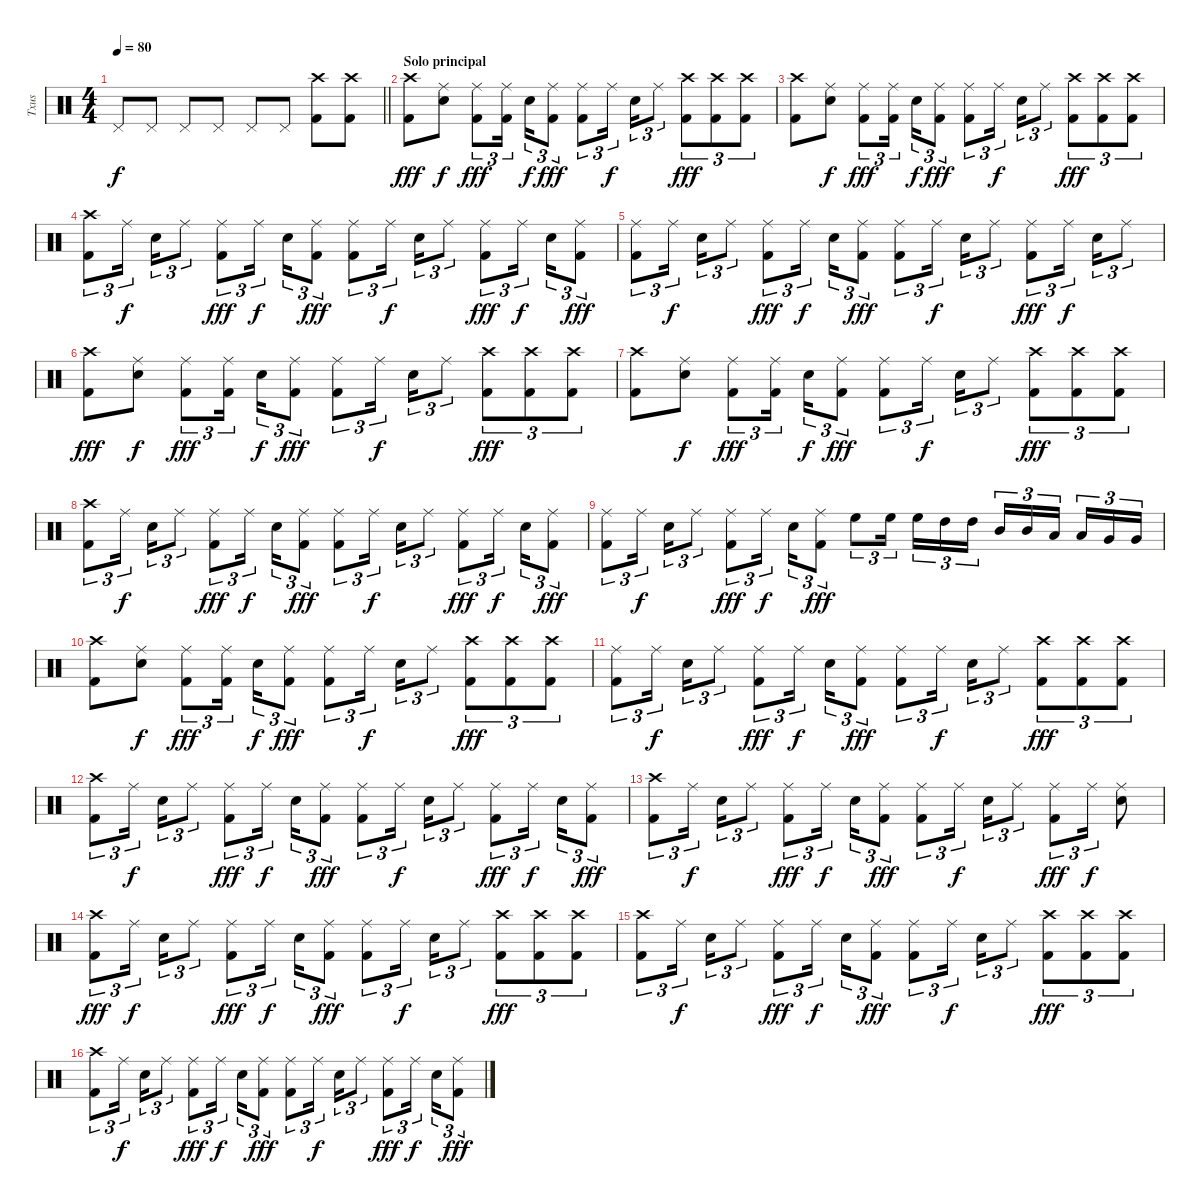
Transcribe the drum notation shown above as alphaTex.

\track ("Txus" "Txus") {instrument percussion}
\staff {score}
\articulation defaults
\ts (4 4)
\tempo 80
\clef neutral
\barLineRight lightlight
\ks c "Pedal Hi-Hat (hit)".8{dy f} "Pedal Hi-Hat (hit)".8 "Pedal Hi-Hat (hit)".8 "Pedal Hi-Hat (hit)".8 "Pedal Hi-Hat (hit)".8 "Pedal Hi-Hat (hit)".8
("Kick (hit) 2" "Crash high (hit)").8 ("Kick (hit) 2" "Crash high (hit)").8 |
\section ("" "Solo principal")
("Kick (hit) 2" "Crash high (hit)").8{dy fff} ("Electric Snare (hit)" "Ride (middle)").8{dy f} ("Kick (hit) 2" "Ride (middle)").8{tu (3 2) dy fff} ("Kick (hit) 2" "Ride (middle)").16{tu (3 2) beam splitsecondary} "Electric Snare (hit)".16{tu (3 2) dy f} ("Kick (hit) 2" "Ride (middle)").8{tu (3 2) dy fff} ("Kick (hit) 2" "Ride (middle)").8{tu (3 2)} "Ride (middle)".16{tu (3 2) dy f beam splitsecondary} "Electric Snare (hit)".16{tu (3 2)} "Ride (middle)".8{tu (3 2)} ("Kick (hit) 2" "Crash high (hit)").8{tu (3 2) dy fff} ("Kick (hit) 2" "Crash high (hit)").8{tu (3 2)} ("Kick (hit) 2" "Crash high (hit)").8{tu (3 2)} |
("Kick (hit) 2" "Crash high (hit)").8 ("Electric Snare (hit)" "Ride (middle)").8{dy f} ("Kick (hit) 2" "Ride (middle)").8{tu (3 2) dy fff} ("Kick (hit) 2" "Ride (middle)").16{tu (3 2) beam splitsecondary} "Electric Snare (hit)".16{tu (3 2) dy f} ("Kick (hit) 2" "Ride (middle)").8{tu (3 2) dy fff} ("Kick (hit) 2" "Ride (middle)").8{tu (3 2)} "Ride (middle)".16{tu (3 2) dy f beam splitsecondary} "Electric Snare (hit)".16{tu (3 2)} "Ride (middle)".8{tu (3 2)} ("Kick (hit) 2" "Crash high (hit)").8{tu (3 2) dy fff} ("Kick (hit) 2" "Crash high (hit)").8{tu (3 2)} ("Kick (hit) 2" "Crash high (hit)").8{tu (3 2)} |
("Kick (hit) 2" "Crash high (hit)").8{tu (3 2)} "Ride (middle)".16{tu (3 2) dy f beam splitsecondary} "Electric Snare (hit)".16{tu (3 2)} "Ride (middle)".8{tu (3 2)} ("Kick (hit) 2" "Ride (middle)").8{tu (3 2) dy fff} "Ride (middle)".16{tu (3 2) dy f beam splitsecondary} "Electric Snare (hit)".16{tu (3 2)} ("Kick (hit) 2" "Ride (middle)").8{tu (3 2) dy fff} ("Kick (hit) 2" "Ride (middle)").8{tu (3 2)} "Ride (middle)".16{tu (3 2) dy f beam splitsecondary} "Electric Snare (hit)".16{tu (3 2)} "Ride (middle)".8{tu (3 2)} ("Kick (hit) 2" "Ride (middle)").8{tu (3 2) dy fff} "Ride (middle)".16{tu (3 2) dy f beam splitsecondary} "Electric Snare (hit)".16{tu (3 2)} ("Kick (hit) 2" "Ride (middle)").8{tu (3 2) dy fff} |
("Kick (hit) 2" "Ride (middle)").8{tu (3 2)} "Ride (middle)".16{tu (3 2) dy f beam splitsecondary} "Electric Snare (hit)".16{tu (3 2)} "Ride (middle)".8{tu (3 2)} ("Kick (hit) 2" "Ride (middle)").8{tu (3 2) dy fff} "Ride (middle)".16{tu (3 2) dy f beam splitsecondary} "Electric Snare (hit)".16{tu (3 2)} ("Kick (hit) 2" "Ride (middle)").8{tu (3 2) dy fff} ("Kick (hit) 2" "Ride (middle)").8{tu (3 2)} "Ride (middle)".16{tu (3 2) dy f beam splitsecondary} "Electric Snare (hit)".16{tu (3 2)} "Ride (middle)".8{tu (3 2)} ("Kick (hit) 2" "Ride (middle)").8{tu (3 2) dy fff} "Ride (middle)".16{tu (3 2) dy f beam splitsecondary} "Electric Snare (hit)".16{tu (3 2)} "Ride (middle)".8{tu (3 2)} |
("Kick (hit) 2" "Crash high (hit)").8{dy fff} ("Electric Snare (hit)" "Ride (middle)").8{dy f} ("Kick (hit) 2" "Ride (middle)").8{tu (3 2) dy fff} ("Kick (hit) 2" "Ride (middle)").16{tu (3 2) beam splitsecondary} "Electric Snare (hit)".16{tu (3 2) dy f} ("Kick (hit) 2" "Ride (middle)").8{tu (3 2) dy fff} ("Kick (hit) 2" "Ride (middle)").8{tu (3 2)} "Ride (middle)".16{tu (3 2) dy f beam splitsecondary} "Electric Snare (hit)".16{tu (3 2)} "Ride (middle)".8{tu (3 2)} ("Kick (hit) 2" "Crash high (hit)").8{tu (3 2) dy fff} ("Kick (hit) 2" "Crash high (hit)").8{tu (3 2)} ("Kick (hit) 2" "Crash high (hit)").8{tu (3 2)} |
("Kick (hit) 2" "Crash high (hit)").8 ("Electric Snare (hit)" "Ride (middle)").8{dy f} ("Kick (hit) 2" "Ride (middle)").8{tu (3 2) dy fff} ("Kick (hit) 2" "Ride (middle)").16{tu (3 2) beam splitsecondary} "Electric Snare (hit)".16{tu (3 2) dy f} ("Kick (hit) 2" "Ride (middle)").8{tu (3 2) dy fff} ("Kick (hit) 2" "Ride (middle)").8{tu (3 2)} "Ride (middle)".16{tu (3 2) dy f beam splitsecondary} "Electric Snare (hit)".16{tu (3 2)} "Ride (middle)".8{tu (3 2)} ("Kick (hit) 2" "Crash high (hit)").8{tu (3 2) dy fff} ("Kick (hit) 2" "Crash high (hit)").8{tu (3 2)} ("Kick (hit) 2" "Crash high (hit)").8{tu (3 2)} |
("Kick (hit) 2" "Crash high (hit)").8{tu (3 2)} "Ride (middle)".16{tu (3 2) dy f beam splitsecondary} "Electric Snare (hit)".16{tu (3 2)} "Ride (middle)".8{tu (3 2)} ("Kick (hit) 2" "Ride (middle)").8{tu (3 2) dy fff} "Ride (middle)".16{tu (3 2) dy f beam splitsecondary} "Electric Snare (hit)".16{tu (3 2)} ("Kick (hit) 2" "Ride (middle)").8{tu (3 2) dy fff} ("Kick (hit) 2" "Ride (middle)").8{tu (3 2)} "Ride (middle)".16{tu (3 2) dy f beam splitsecondary} "Electric Snare (hit)".16{tu (3 2)} "Ride (middle)".8{tu (3 2)} ("Kick (hit) 2" "Ride (middle)").8{tu (3 2) dy fff} "Ride (middle)".16{tu (3 2) dy f beam splitsecondary} "Electric Snare (hit)".16{tu (3 2)} ("Kick (hit) 2" "Ride (middle)").8{tu (3 2) dy fff} |
("Kick (hit) 2" "Ride (middle)").8{tu (3 2)} "Ride (middle)".16{tu (3 2) dy f beam splitsecondary} "Electric Snare (hit)".16{tu (3 2)} "Ride (middle)".8{tu (3 2)} ("Kick (hit) 2" "Ride (middle)").8{tu (3 2) dy fff} "Ride (middle)".16{tu (3 2) dy f beam splitsecondary} "Electric Snare (hit)".16{tu (3 2)} ("Kick (hit) 2" "Ride (middle)").8{tu (3 2) dy fff} "High Floor Tom (hit)".8{tu (3 2)} "High Floor Tom (hit)".16{tu (3 2) beam splitsecondary} "High Floor Tom (hit)".16{tu (3 2)} "High Tom (hit)".16{tu (3 2)} "High Tom (hit)".16{tu (3 2)} "Mid Tom (hit)".16{tu (3 2)} "Mid Tom (hit)".16{tu (3 2)} "Low Tom (hit)".16{tu (3 2) beam splitsecondary} "Low Tom (hit)".16{tu (3 2)} "Very Low Tom (hit)".16{tu (3 2)} "Very Low Tom (hit)".16{tu (3 2)} |
("Kick (hit) 2" "Crash high (hit)").8 ("Electric Snare (hit)" "Ride (middle)").8{dy f} ("Kick (hit) 2" "Ride (middle)").8{tu (3 2) dy fff} ("Kick (hit) 2" "Ride (middle)").16{tu (3 2) beam splitsecondary} "Electric Snare (hit)".16{tu (3 2) dy f} ("Kick (hit) 2" "Ride (middle)").8{tu (3 2) dy fff} ("Kick (hit) 2" "Ride (middle)").8{tu (3 2)} "Ride (middle)".16{tu (3 2) dy f beam splitsecondary} "Electric Snare (hit)".16{tu (3 2)} "Ride (middle)".8{tu (3 2)} ("Kick (hit) 2" "Crash high (hit)").8{tu (3 2) dy fff} ("Kick (hit) 2" "Crash high (hit)").8{tu (3 2)} ("Kick (hit) 2" "Crash high (hit)").8{tu (3 2)} |
("Kick (hit) 2" "Ride (middle)").8{tu (3 2)} "Ride (middle)".16{tu (3 2) dy f beam splitsecondary} "Electric Snare (hit)".16{tu (3 2)} "Ride (middle)".8{tu (3 2)} ("Kick (hit) 2" "Ride (middle)").8{tu (3 2) dy fff} "Ride (middle)".16{tu (3 2) dy f beam splitsecondary} "Electric Snare (hit)".16{tu (3 2)} ("Kick (hit) 2" "Ride (middle)").8{tu (3 2) dy fff} ("Kick (hit) 2" "Ride (middle)").8{tu (3 2)} "Ride (middle)".16{tu (3 2) dy f beam splitsecondary} "Electric Snare (hit)".16{tu (3 2)} "Ride (middle)".8{tu (3 2)} ("Kick (hit) 2" "Crash high (hit)").8{tu (3 2) dy fff} ("Kick (hit) 2" "Crash high (hit)").8{tu (3 2)} ("Kick (hit) 2" "Crash high (hit)").8{tu (3 2)} |
("Kick (hit) 2" "Crash high (hit)").8{tu (3 2)} "Ride (middle)".16{tu (3 2) dy f beam splitsecondary} "Electric Snare (hit)".16{tu (3 2)} "Ride (middle)".8{tu (3 2)} ("Kick (hit) 2" "Ride (middle)").8{tu (3 2) dy fff} "Ride (middle)".16{tu (3 2) dy f beam splitsecondary} "Electric Snare (hit)".16{tu (3 2)} ("Kick (hit) 2" "Ride (middle)").8{tu (3 2) dy fff} ("Kick (hit) 2" "Ride (middle)").8{tu (3 2)} "Ride (middle)".16{tu (3 2) dy f beam splitsecondary} "Electric Snare (hit)".16{tu (3 2)} "Ride (middle)".8{tu (3 2)} ("Kick (hit) 2" "Ride (middle)").8{tu (3 2) dy fff} "Ride (middle)".16{tu (3 2) dy f beam splitsecondary} "Electric Snare (hit)".16{tu (3 2)} ("Kick (hit) 2" "Ride (middle)").8{tu (3 2) dy fff} |
("Kick (hit) 2" "Crash high (hit)").8{tu (3 2)} "Ride (middle)".16{tu (3 2) dy f beam splitsecondary} "Electric Snare (hit)".16{tu (3 2)} "Ride (middle)".8{tu (3 2)} ("Kick (hit) 2" "Ride (middle)").8{tu (3 2) dy fff} "Ride (middle)".16{tu (3 2) dy f beam splitsecondary} "Electric Snare (hit)".16{tu (3 2)} ("Kick (hit) 2" "Ride (middle)").8{tu (3 2) dy fff} ("Kick (hit) 2" "Ride (middle)").8{tu (3 2)} "Ride (middle)".16{tu (3 2) dy f beam splitsecondary} "Electric Snare (hit)".16{tu (3 2)} "Ride (middle)".8{tu (3 2)} ("Kick (hit) 2" "Ride (middle)").8{tu (3 2) dy fff} "Ride (middle)".16{tu (3 2) dy f} ("Electric Snare (hit)" "Ride (middle)").8 |
("Kick (hit) 2" "Crash high (hit)").8{tu (3 2) dy fff} "Ride (middle)".16{tu (3 2) dy f beam splitsecondary} "Electric Snare (hit)".16{tu (3 2)} "Ride (middle)".8{tu (3 2)} ("Kick (hit) 2" "Ride (middle)").8{tu (3 2) dy fff} "Ride (middle)".16{tu (3 2) dy f beam splitsecondary} "Electric Snare (hit)".16{tu (3 2)} ("Kick (hit) 2" "Ride (middle)").8{tu (3 2) dy fff} ("Kick (hit) 2" "Ride (middle)").8{tu (3 2)} "Ride (middle)".16{tu (3 2) dy f beam splitsecondary} "Electric Snare (hit)".16{tu (3 2)} "Ride (middle)".8{tu (3 2)} ("Kick (hit) 2" "Crash high (hit)").8{tu (3 2) dy fff} ("Kick (hit) 2" "Crash high (hit)").8{tu (3 2)} ("Kick (hit) 2" "Crash high (hit)").8{tu (3 2)} |
("Kick (hit) 2" "Crash high (hit)").8{tu (3 2)} "Ride (middle)".16{tu (3 2) dy f beam splitsecondary} "Electric Snare (hit)".16{tu (3 2)} "Ride (middle)".8{tu (3 2)} ("Kick (hit) 2" "Ride (middle)").8{tu (3 2) dy fff} "Ride (middle)".16{tu (3 2) dy f beam splitsecondary} "Electric Snare (hit)".16{tu (3 2)} ("Kick (hit) 2" "Ride (middle)").8{tu (3 2) dy fff} ("Kick (hit) 2" "Ride (middle)").8{tu (3 2)} "Ride (middle)".16{tu (3 2) dy f beam splitsecondary} "Electric Snare (hit)".16{tu (3 2)} "Ride (middle)".8{tu (3 2)} ("Kick (hit) 2" "Crash high (hit)").8{tu (3 2) dy fff} ("Kick (hit) 2" "Crash high (hit)").8{tu (3 2)} ("Kick (hit) 2" "Crash high (hit)").8{tu (3 2)} |
("Kick (hit) 2" "Crash high (hit)").8{tu (3 2)} "Ride (middle)".16{tu (3 2) dy f beam splitsecondary} "Electric Snare (hit)".16{tu (3 2)} "Ride (middle)".8{tu (3 2)} ("Kick (hit) 2" "Ride (middle)").8{tu (3 2) dy fff} "Ride (middle)".16{tu (3 2) dy f beam splitsecondary} "Electric Snare (hit)".16{tu (3 2)} ("Kick (hit) 2" "Ride (middle)").8{tu (3 2) dy fff} ("Kick (hit) 2" "Ride (middle)").8{tu (3 2)} "Ride (middle)".16{tu (3 2) dy f beam splitsecondary} "Electric Snare (hit)".16{tu (3 2)} "Ride (middle)".8{tu (3 2)} ("Kick (hit) 2" "Ride (middle)").8{tu (3 2) dy fff} "Ride (middle)".16{tu (3 2) dy f beam splitsecondary} "Electric Snare (hit)".16{tu (3 2)} ("Kick (hit) 2" "Ride (middle)").8{tu (3 2) dy fff}
